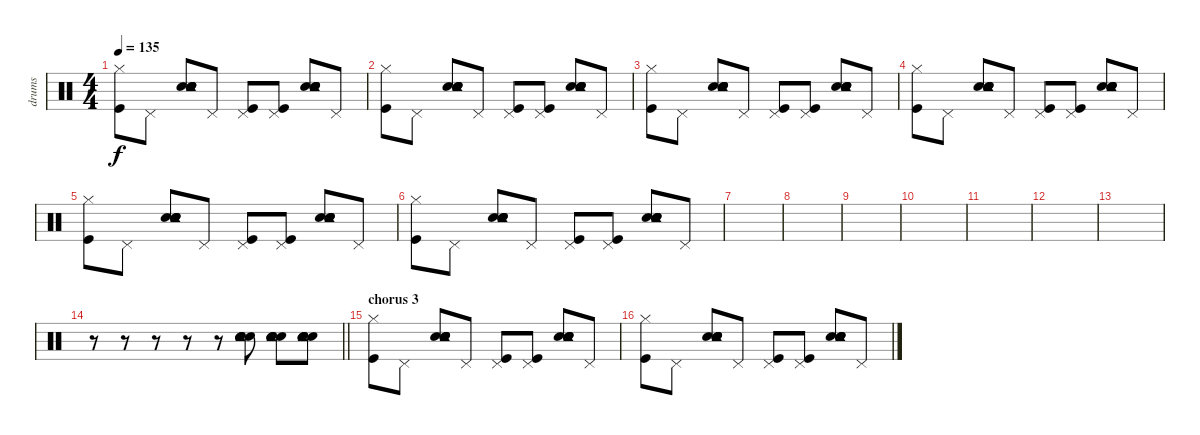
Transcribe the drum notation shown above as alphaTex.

\track ("drums" "drums") {instrument percussion}
\staff {score}
\articulation defaults
\ts (4 4)
\tempo 135
\clef neutral
\ks c
("Kick (hit)" "Hi-Hat (closed)").8{dy f} "Pedal Hi-Hat (hit)".8 ("Snare (hit) 2" "Snare (hit) 2" "Electric Snare (hit)" "Electric Snare (hit)" "Tambourine (hit)").8 "Pedal Hi-Hat (hit)".8 ("Kick (hit)" "Pedal Hi-Hat (hit)").8 ("Kick (hit)" "Pedal Hi-Hat (hit)").8 ("Snare (hit) 2" "Snare (hit) 2" "Electric Snare (hit)" "Electric Snare (hit)" "Tambourine (hit)").8 "Pedal Hi-Hat (hit)".8 |
("Kick (hit)" "Hi-Hat (closed)").8 "Pedal Hi-Hat (hit)".8 ("Snare (hit) 2" "Snare (hit) 2" "Electric Snare (hit)" "Electric Snare (hit)" "Tambourine (hit)").8 "Pedal Hi-Hat (hit)".8 ("Kick (hit)" "Pedal Hi-Hat (hit)").8 ("Kick (hit)" "Pedal Hi-Hat (hit)").8 ("Snare (hit) 2" "Snare (hit) 2" "Electric Snare (hit)" "Electric Snare (hit)" "Tambourine (hit)").8 "Pedal Hi-Hat (hit)".8 |
("Kick (hit)" "Hi-Hat (closed)").8 "Pedal Hi-Hat (hit)".8 ("Snare (hit) 2" "Snare (hit) 2" "Electric Snare (hit)" "Electric Snare (hit)" "Tambourine (hit)").8 "Pedal Hi-Hat (hit)".8 ("Kick (hit)" "Pedal Hi-Hat (hit)").8 ("Kick (hit)" "Pedal Hi-Hat (hit)").8 ("Snare (hit) 2" "Snare (hit) 2" "Electric Snare (hit)" "Electric Snare (hit)" "Tambourine (hit)").8 "Pedal Hi-Hat (hit)".8 |
("Kick (hit)" "Hi-Hat (closed)").8 "Pedal Hi-Hat (hit)".8 ("Snare (hit) 2" "Snare (hit) 2" "Electric Snare (hit)" "Electric Snare (hit)" "Tambourine (hit)").8 "Pedal Hi-Hat (hit)".8 ("Kick (hit)" "Pedal Hi-Hat (hit)").8 ("Kick (hit)" "Pedal Hi-Hat (hit)").8 ("Snare (hit) 2" "Snare (hit) 2" "Electric Snare (hit)" "Electric Snare (hit)" "Tambourine (hit)").8 "Pedal Hi-Hat (hit)".8 |
("Kick (hit)" "Hi-Hat (closed)").8 "Pedal Hi-Hat (hit)".8 ("Snare (hit) 2" "Snare (hit) 2" "Electric Snare (hit)" "Electric Snare (hit)" "Tambourine (hit)").8 "Pedal Hi-Hat (hit)".8 ("Kick (hit)" "Pedal Hi-Hat (hit)").8 ("Kick (hit)" "Pedal Hi-Hat (hit)").8 ("Snare (hit) 2" "Snare (hit) 2" "Electric Snare (hit)" "Electric Snare (hit)" "Tambourine (hit)").8 "Pedal Hi-Hat (hit)".8 |
("Kick (hit)" "Hi-Hat (closed)").8 "Pedal Hi-Hat (hit)".8 ("Snare (hit) 2" "Snare (hit) 2" "Electric Snare (hit)" "Electric Snare (hit)" "Tambourine (hit)").8 "Pedal Hi-Hat (hit)".8 ("Kick (hit)" "Pedal Hi-Hat (hit)").8 ("Kick (hit)" "Pedal Hi-Hat (hit)").8 ("Snare (hit) 2" "Snare (hit) 2" "Electric Snare (hit)" "Electric Snare (hit)" "Tambourine (hit)").8 "Pedal Hi-Hat (hit)".8 |
|
|
|
|
|
|
|
\barLineRight lightlight
r.8 r.8 r.8 r.8 r.8 ("Snare (hit) 2" "Snare (hit) 2" "Electric Snare (hit)" "Electric Snare (hit)" "Tambourine (hit)").8 ("Snare (hit) 2" "Snare (hit) 2" "Electric Snare (hit)" "Electric Snare (hit)" "Tambourine (hit)").8 ("Snare (hit) 2" "Snare (hit) 2" "Electric Snare (hit)" "Electric Snare (hit)" "Tambourine (hit)").8 |
\section ("" "chorus 3")
("Kick (hit)" "Hi-Hat (closed)").8 "Pedal Hi-Hat (hit)".8 ("Snare (hit) 2" "Snare (hit) 2" "Electric Snare (hit)" "Electric Snare (hit)" "Tambourine (hit)").8 "Pedal Hi-Hat (hit)".8 ("Kick (hit)" "Pedal Hi-Hat (hit)").8 ("Kick (hit)" "Pedal Hi-Hat (hit)").8 ("Snare (hit) 2" "Snare (hit) 2" "Electric Snare (hit)" "Electric Snare (hit)" "Tambourine (hit)").8 "Pedal Hi-Hat (hit)".8 |
("Kick (hit)" "Hi-Hat (closed)").8 "Pedal Hi-Hat (hit)".8 ("Snare (hit) 2" "Snare (hit) 2" "Electric Snare (hit)" "Electric Snare (hit)" "Tambourine (hit)").8 "Pedal Hi-Hat (hit)".8 ("Kick (hit)" "Pedal Hi-Hat (hit)").8 ("Kick (hit)" "Pedal Hi-Hat (hit)").8 ("Snare (hit) 2" "Snare (hit) 2" "Electric Snare (hit)" "Electric Snare (hit)" "Tambourine (hit)").8 "Pedal Hi-Hat (hit)".8
